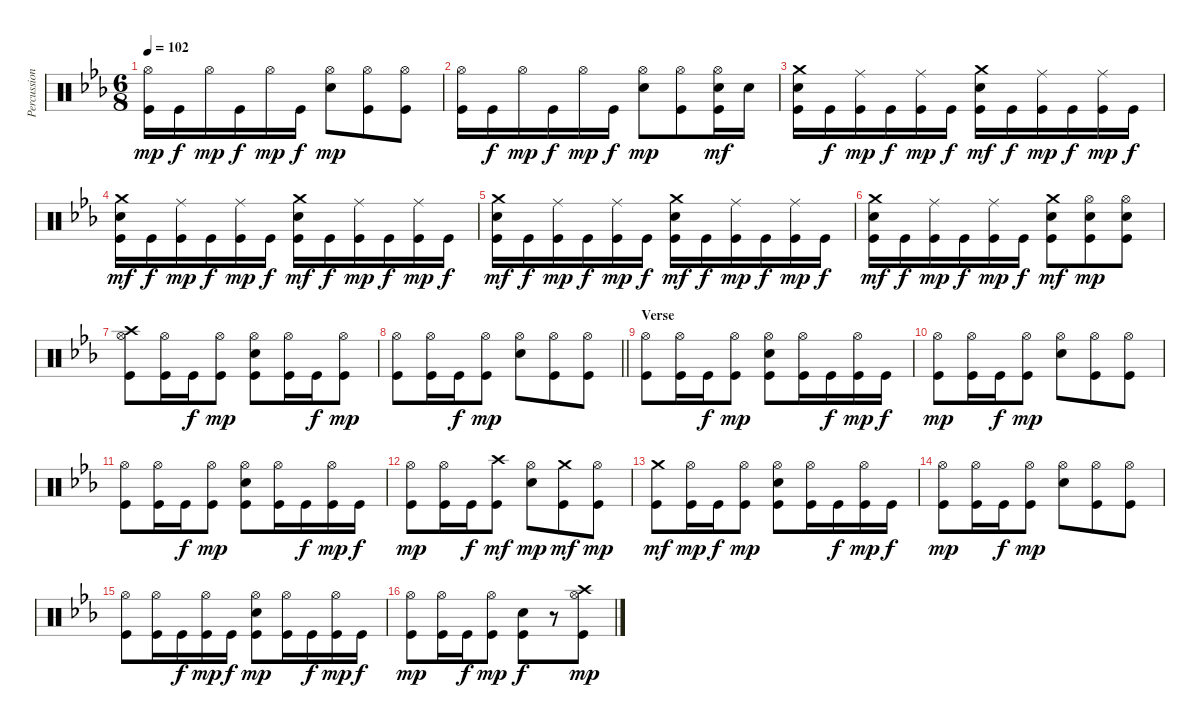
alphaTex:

\track ("Percussion" "Percussion") {instrument percussion}
\staff {score}
\articulation defaults
\ts (6 8)
\tempo 102
\clef neutral
\ks cminor
("Hi-Hat (open)" "Kick (hit)").16{dy mp} "Kick (hit)".16{dy f} "Hi-Hat (open)".16{dy mp} "Kick (hit)".16{dy f} "Hi-Hat (open)".16{dy mp} "Kick (hit)".16{dy f} ("Hi-Hat (open)" "Snare (hit) 2").8{dy mp} ("Hi-Hat (open)" "Kick (hit)").8 ("Hi-Hat (open)" "Kick (hit)").8 |
("Hi-Hat (open)" "Kick (hit)").16 "Kick (hit)".16{dy f} "Hi-Hat (open)".16{dy mp} "Kick (hit)".16{dy f} "Hi-Hat (open)".16{dy mp} "Kick (hit)".16{dy f} ("Hi-Hat (open)" "Snare (hit) 2").8{dy mp} ("Hi-Hat (open)" "Kick (hit)").8 ("Hi-Hat (open)" "Snare (hit) 2" "Kick (hit)").16{dy mf} "Snare (hit) 2".16 |
("Crash medium (hit)" "Snare (hit) 2" "Kick (hit)").16 "Kick (hit)".16{dy f} ("Ride (middle)" "Kick (hit)").16{dy mp} "Kick (hit)".16{dy f} ("Ride (middle)" "Kick (hit)").16{dy mp} "Kick (hit)".16{dy f} ("Crash medium (hit)" "Snare (hit) 2" "Kick (hit)").16{dy mf} "Kick (hit)".16{dy f} ("Ride (middle)" "Kick (hit)").16{dy mp} "Kick (hit)".16{dy f} ("Ride (middle)" "Kick (hit)").16{dy mp} "Kick (hit)".16{dy f} |
("Crash medium (hit)" "Snare (hit) 2" "Kick (hit)").16{dy mf} "Kick (hit)".16{dy f} ("Ride (middle)" "Kick (hit)").16{dy mp} "Kick (hit)".16{dy f} ("Ride (middle)" "Kick (hit)").16{dy mp} "Kick (hit)".16{dy f} ("Crash medium (hit)" "Snare (hit) 2" "Kick (hit)").16{dy mf} "Kick (hit)".16{dy f} ("Ride (middle)" "Kick (hit)").16{dy mp} "Kick (hit)".16{dy f} ("Ride (middle)" "Kick (hit)").16{dy mp} "Kick (hit)".16{dy f} |
("Crash medium (hit)" "Snare (hit) 2" "Kick (hit)").16{dy mf} "Kick (hit)".16{dy f} ("Ride (middle)" "Kick (hit)").16{dy mp} "Kick (hit)".16{dy f} ("Ride (middle)" "Kick (hit)").16{dy mp} "Kick (hit)".16{dy f} ("Crash medium (hit)" "Snare (hit) 2" "Kick (hit)").16{dy mf} "Kick (hit)".16{dy f} ("Ride (middle)" "Kick (hit)").16{dy mp} "Kick (hit)".16{dy f} ("Ride (middle)" "Kick (hit)").16{dy mp} "Kick (hit)".16{dy f} |
("Crash medium (hit)" "Snare (hit) 2" "Kick (hit)").16{dy mf} "Kick (hit)".16{dy f} ("Ride (middle)" "Kick (hit)").16{dy mp} "Kick (hit)".16{dy f} ("Ride (middle)" "Kick (hit)").16{dy mp} "Kick (hit)".16{dy f} ("Crash medium (hit)" "Snare (hit) 2" "Kick (hit)").8{dy mf} ("Hi-Hat (open)" "Snare (hit) 2" "Kick (hit)").8{dy mp} ("Hi-Hat (open)" "Snare (hit) 2" "Kick (hit)").8 |
("Crash high (hit)" "Hi-Hat (open)" "Kick (hit)").8 ("Hi-Hat (open)" "Kick (hit)").16 "Kick (hit)".16{dy f} ("Hi-Hat (open)" "Kick (hit)").8{dy mp} ("Hi-Hat (open)" "Snare (hit) 2" "Kick (hit)").8 ("Hi-Hat (open)" "Kick (hit)").16 "Kick (hit)".16{dy f} ("Hi-Hat (open)" "Kick (hit)").8{dy mp} |
\barLineRight lightlight
("Hi-Hat (open)" "Kick (hit)").8 ("Hi-Hat (open)" "Kick (hit)").16 "Kick (hit)".16{dy f} ("Hi-Hat (open)" "Kick (hit)").8{dy mp} ("Hi-Hat (open)" "Snare (hit) 2").8 ("Hi-Hat (open)" "Kick (hit)").8 ("Hi-Hat (open)" "Kick (hit)").8 |
\section ("" "Verse")
("Hi-Hat (open)" "Kick (hit)").8 ("Hi-Hat (open)" "Kick (hit)").16 "Kick (hit)".16{dy f} ("Hi-Hat (open)" "Kick (hit)").8{dy mp} ("Hi-Hat (open)" "Snare (hit) 2" "Kick (hit)").8 ("Hi-Hat (open)" "Kick (hit)").16 "Kick (hit)".16{dy f} ("Hi-Hat (open)" "Kick (hit)").16{dy mp} "Kick (hit)".16{dy f} |
("Hi-Hat (open)" "Kick (hit)").8{dy mp} ("Hi-Hat (open)" "Kick (hit)").16 "Kick (hit)".16{dy f} ("Hi-Hat (open)" "Kick (hit)").8{dy mp} ("Hi-Hat (open)" "Snare (hit) 2").8 ("Hi-Hat (open)" "Kick (hit)").8 ("Hi-Hat (open)" "Kick (hit)").8 |
("Hi-Hat (open)" "Kick (hit)").8 ("Hi-Hat (open)" "Kick (hit)").16 "Kick (hit)".16{dy f} ("Hi-Hat (open)" "Kick (hit)").8{dy mp} ("Hi-Hat (open)" "Snare (hit) 2" "Kick (hit)").8 ("Hi-Hat (open)" "Kick (hit)").16 "Kick (hit)".16{dy f} ("Hi-Hat (open)" "Kick (hit)").16{dy mp} "Kick (hit)".16{dy f} |
("Hi-Hat (open)" "Kick (hit)").8{dy mp} ("Hi-Hat (open)" "Kick (hit)").16 "Kick (hit)".16{dy f} ("Crash high (hit)" "Kick (hit)").8{dy mf} ("Hi-Hat (open)" "Snare (hit) 2").8{dy mp} ("Crash medium (hit)" "Kick (hit)").8{dy mf} ("Hi-Hat (open)" "Kick (hit)").8{dy mp} |
("Crash medium (hit)" "Kick (hit)").8{dy mf} ("Hi-Hat (open)" "Kick (hit)").16{dy mp} "Kick (hit)".16{dy f} ("Hi-Hat (open)" "Kick (hit)").8{dy mp} ("Hi-Hat (open)" "Snare (hit) 2" "Kick (hit)").8 ("Hi-Hat (open)" "Kick (hit)").16 "Kick (hit)".16{dy f} ("Hi-Hat (open)" "Kick (hit)").16{dy mp} "Kick (hit)".16{dy f} |
("Hi-Hat (open)" "Kick (hit)").8{dy mp} ("Hi-Hat (open)" "Kick (hit)").16 "Kick (hit)".16{dy f} ("Hi-Hat (open)" "Kick (hit)").8{dy mp} ("Hi-Hat (open)" "Snare (hit) 2").8 ("Hi-Hat (open)" "Kick (hit)").8 ("Hi-Hat (open)" "Kick (hit)").8 |
("Hi-Hat (open)" "Kick (hit)").8 ("Hi-Hat (open)" "Kick (hit)").16 "Kick (hit)".16{dy f} ("Hi-Hat (open)" "Kick (hit)").16{dy mp} "Kick (hit)".16{dy f} ("Hi-Hat (open)" "Snare (hit) 2" "Kick (hit)").8{dy mp} ("Hi-Hat (open)" "Kick (hit)").16 "Kick (hit)".16{dy f} ("Hi-Hat (open)" "Kick (hit)").16{dy mp} "Kick (hit)".16{dy f} |
("Hi-Hat (open)" "Kick (hit)").8{dy mp} ("Hi-Hat (open)" "Kick (hit)").16 "Kick (hit)".16{dy f} ("Hi-Hat (open)" "Kick (hit)").8{dy mp} ("Snare (hit) 2" "Kick (hit)").8{dy f} r.8 ("Crash high (hit)" "Hi-Hat (open)" "Kick (hit)").8{dy mp}
